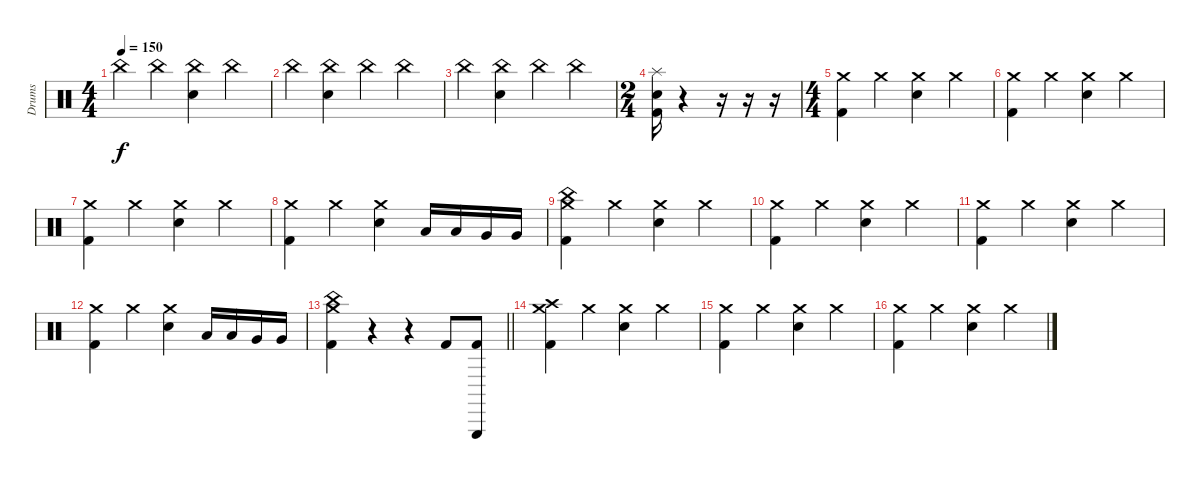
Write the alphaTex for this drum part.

\track ("Drums" "Drums") {instrument percussion}
\staff {score}
\articulation defaults
\ts (4 4)
\tempo 150
\clef neutral
\ks c "China (hit)".4{dy f} "China (hit)".4
("China (hit)" "Electric Snare (hit)").4 "China (hit)".4 |
"China (hit)".4 ("China (hit)" "Electric Snare (hit)").4 "China (hit)".4 "China (hit)".4 |
"China (hit)".4 ("China (hit)" "Electric Snare (hit)").4 "China (hit)".4 "China (hit)".4 |
\ts (2 4)
("Electric Snare (hit)" "Kick (hit) 2" "Splash (hit)").16 r.4 r.16 r.16 r.16 |
\ts (4 4)
("Crash medium (hit)" "Kick (hit) 2").4 "Crash medium (hit)".4 ("Crash medium (hit)" "Electric Snare (hit)").4 "Crash medium (hit)".4 |
("Crash medium (hit)" "Kick (hit) 2").4 "Crash medium (hit)".4 ("Crash medium (hit)" "Electric Snare (hit)").4 "Crash medium (hit)".4 |
("Crash medium (hit)" "Kick (hit) 2").4 "Crash medium (hit)".4 ("Crash medium (hit)" "Electric Snare (hit)").4 "Crash medium (hit)".4 |
("Crash medium (hit)" "Kick (hit) 2").4 "Crash medium (hit)".4 ("Crash medium (hit)" "Electric Snare (hit)").4 "Low Tom (hit)".16 "Low Tom (hit)".16 "Very Low Tom (hit)".16 "Very Low Tom (hit)".16 |
("China (hit)" "Crash medium (hit)" "Kick (hit) 2").4 "Crash medium (hit)".4 ("Crash medium (hit)" "Electric Snare (hit)").4 "Crash medium (hit)".4 |
("Crash medium (hit)" "Kick (hit) 2").4 "Crash medium (hit)".4 ("Crash medium (hit)" "Electric Snare (hit)").4 "Crash medium (hit)".4 |
("Crash medium (hit)" "Kick (hit) 2").4 "Crash medium (hit)".4 ("Crash medium (hit)" "Electric Snare (hit)").4 "Crash medium (hit)".4 |
("Crash medium (hit)" "Kick (hit) 2").4 "Crash medium (hit)".4 ("Crash medium (hit)" "Electric Snare (hit)").4 "Low Tom (hit)".16 "Low Tom (hit)".16 "Very Low Tom (hit)".16 "Very Low Tom (hit)".16 |
\barLineRight lightlight
("China (hit)" "Crash medium (hit)" "Kick (hit) 2").4 r.4 r.4 "Kick (hit) 2".8 ("Triangle (hit)" "Kick (hit) 2").8 |
("Crash high (hit)" "Crash medium (hit)" "Kick (hit) 2").4 "Crash medium (hit)".4 ("Crash medium (hit)" "Electric Snare (hit)").4 "Crash medium (hit)".4 |
("Crash medium (hit)" "Kick (hit) 2").4 "Crash medium (hit)".4 ("Crash medium (hit)" "Electric Snare (hit)").4 "Crash medium (hit)".4 |
("Crash medium (hit)" "Kick (hit) 2").4 "Crash medium (hit)".4 ("Crash medium (hit)" "Electric Snare (hit)").4 "Crash medium (hit)".4
